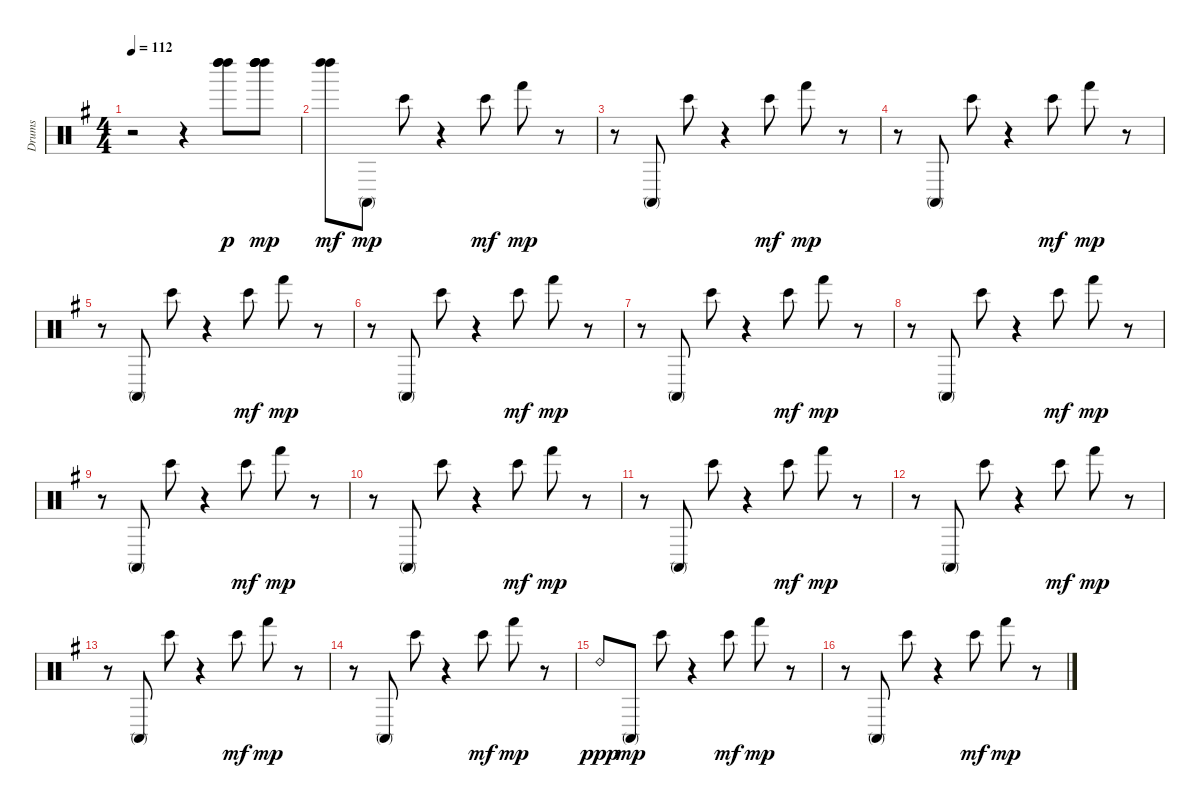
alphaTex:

\track ("Drums" "Drums") {instrument percussion}
\staff {score}
\articulation defaults
\ts (4 4)
\tempo 112
\clef neutral
\ks g
r.2{dy mp} r.4 ("Left Maraca (hit)" "Left Maraca (hit)" "Left Maraca (hit)").8{dy p} ("Left Maraca (hit)" "Left Maraca (hit)" "Left Maraca (hit)" "Left Maraca (hit)").8{dy mp} |
("Left Maraca (hit)" "Left Maraca (hit)").8{dy mf} "Conga high (mute)".8{dy mp} "Bongo High (hit)".8 r.4 "Bongo High (hit)".8{dy mf} "Hand (hit)".8{dy mp} r.8 |
r.8 "Conga high (mute)".8 "Bongo High (hit)".8 r.4 "Bongo High (hit)".8{dy mf} "Hand (hit)".8{dy mp} r.8 |
r.8 "Conga high (mute)".8 "Bongo High (hit)".8 r.4 "Bongo High (hit)".8{dy mf} "Hand (hit)".8{dy mp} r.8 |
r.8 "Conga high (mute)".8 "Bongo High (hit)".8 r.4 "Bongo High (hit)".8{dy mf} "Hand (hit)".8{dy mp} r.8 |
r.8 "Conga high (mute)".8 "Bongo High (hit)".8 r.4 "Bongo High (hit)".8{dy mf} "Hand (hit)".8{dy mp} r.8 |
r.8 "Conga high (mute)".8 "Bongo High (hit)".8 r.4 "Bongo High (hit)".8{dy mf} "Hand (hit)".8{dy mp} r.8 |
r.8 "Conga high (mute)".8 "Bongo High (hit)".8 r.4 "Bongo High (hit)".8{dy mf} "Hand (hit)".8{dy mp} r.8 |
r.8 "Conga high (mute)".8 "Bongo High (hit)".8 r.4 "Bongo High (hit)".8{dy mf} "Hand (hit)".8{dy mp} r.8 |
r.8 "Conga high (mute)".8 "Bongo High (hit)".8 r.4 "Bongo High (hit)".8{dy mf} "Hand (hit)".8{dy mp} r.8 |
r.8 "Conga high (mute)".8 "Bongo High (hit)".8 r.4 "Bongo High (hit)".8{dy mf} "Hand (hit)".8{dy mp} r.8 |
r.8 "Conga high (mute)".8 "Bongo High (hit)".8 r.4 "Bongo High (hit)".8{dy mf} "Hand (hit)".8{dy mp} r.8 |
r.8 "Conga high (mute)".8 "Bongo High (hit)".8 r.4 "Bongo High (hit)".8{dy mf} "Hand (hit)".8{dy mp} r.8 |
r.8 "Conga high (mute)".8 "Bongo High (hit)".8 r.4 "Bongo High (hit)".8{dy mf} "Hand (hit)".8{dy mp} r.8 |
"Ride (bell) 2".8{dy ppp} "Conga high (mute)".8{dy mp} "Bongo High (hit)".8 r.4 "Bongo High (hit)".8{dy mf} "Hand (hit)".8{dy mp} r.8 |
r.8 "Conga high (mute)".8 "Bongo High (hit)".8 r.4 "Bongo High (hit)".8{dy mf} "Hand (hit)".8{dy mp} r.8
